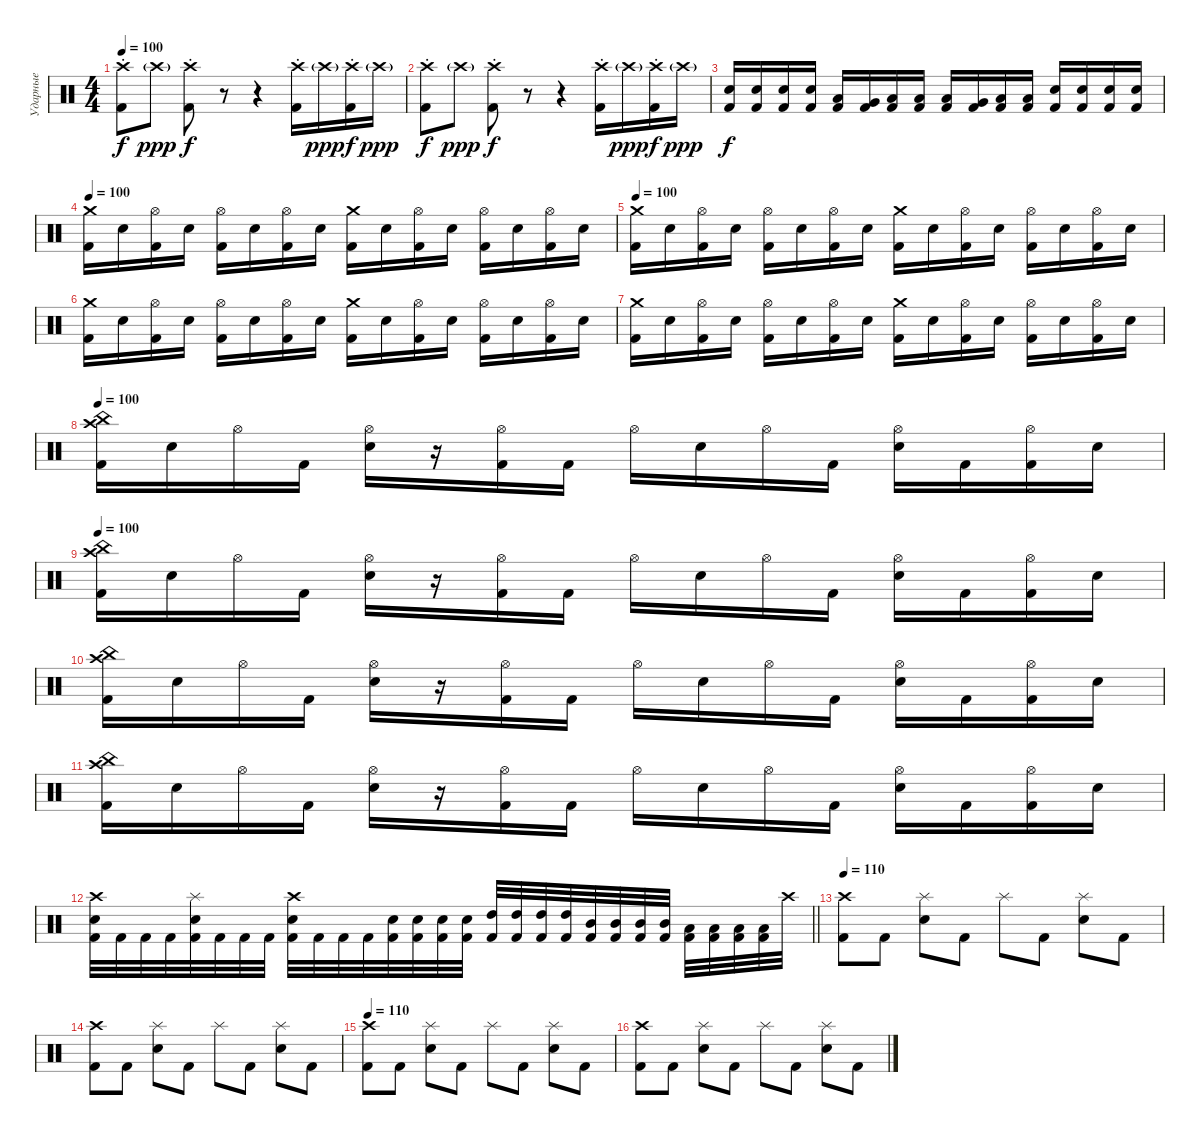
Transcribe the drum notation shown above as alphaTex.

\track ("Ударные" "Ударные") {instrument percussion}
\staff {score}
\articulation defaults
\ts (4 4)
\tempo 100
\clef neutral
\ks c
("Crash high (hit)"{st} "Kick (hit) 2").8{dy f} "Crash high (hit)"{g}.8{dy ppp} ("Crash high (hit)"{st} "Kick (hit) 2").8{dy f} r.8 r.4 ("Crash high (hit)"{st} "Kick (hit) 2").16 "Crash high (hit)"{g}.16{dy ppp} ("Crash high (hit)"{st} "Kick (hit) 2").16{dy f} "Crash high (hit)"{g}.16{dy ppp} |
("Crash high (hit)"{st} "Kick (hit) 2").8{dy f} "Crash high (hit)"{g}.8{dy ppp} ("Crash high (hit)"{st} "Kick (hit) 2").8{dy f} r.8 r.4 ("Crash high (hit)"{st} "Kick (hit) 2").16 "Crash high (hit)"{g}.16{dy ppp} ("Crash high (hit)"{st} "Kick (hit) 2").16{dy f} "Crash high (hit)"{g}.16{dy ppp} |
("Electric Snare (hit)" "Kick (hit) 2").16{dy f} ("Electric Snare (hit)" "Kick (hit) 2").16 ("Electric Snare (hit)" "Kick (hit) 2").16 ("Electric Snare (hit)" "Kick (hit) 2").16 ("Low Tom (hit)" "Kick (hit) 2").16 ("Very Low Tom (hit)" "Kick (hit) 2").16 ("Low Floor Tom (hit)" "Kick (hit) 2").16 ("Low Floor Tom (hit)" "Kick (hit) 2").16 ("Low Tom (hit)" "Kick (hit) 2").16 ("Very Low Tom (hit)" "Kick (hit) 2").16 ("Low Floor Tom (hit)" "Kick (hit) 2").16 ("Low Floor Tom (hit)" "Kick (hit) 2").16 ("Electric Snare (hit)" "Kick (hit) 2").16 ("Electric Snare (hit)" "Kick (hit) 2").16 ("Electric Snare (hit)" "Kick (hit) 2").16 ("Electric Snare (hit)" "Kick (hit) 2").16 |
\tempo 100
("Crash medium (hit)" "Kick (hit) 2").16 "Electric Snare (hit)".16 ("Hi-Hat (open)" "Kick (hit) 2").16 "Electric Snare (hit)".16 ("Hi-Hat (open)" "Kick (hit) 2").16 "Electric Snare (hit)".16 ("Hi-Hat (open)" "Kick (hit) 2").16 "Electric Snare (hit)".16 ("Crash medium (hit)" "Kick (hit) 2").16 "Electric Snare (hit)".16 ("Hi-Hat (open)" "Kick (hit) 2").16 "Electric Snare (hit)".16 ("Hi-Hat (open)" "Kick (hit) 2").16 "Electric Snare (hit)".16 ("Hi-Hat (open)" "Kick (hit) 2").16 "Electric Snare (hit)".16 |
\tempo 100
("Crash medium (hit)" "Kick (hit) 2").16 "Electric Snare (hit)".16 ("Hi-Hat (open)" "Kick (hit) 2").16 "Electric Snare (hit)".16 ("Hi-Hat (open)" "Kick (hit) 2").16 "Electric Snare (hit)".16 ("Hi-Hat (open)" "Kick (hit) 2").16 "Electric Snare (hit)".16 ("Crash medium (hit)" "Kick (hit) 2").16 "Electric Snare (hit)".16 ("Hi-Hat (open)" "Kick (hit) 2").16 "Electric Snare (hit)".16 ("Hi-Hat (open)" "Kick (hit) 2").16 "Electric Snare (hit)".16 ("Hi-Hat (open)" "Kick (hit) 2").16 "Electric Snare (hit)".16 |
("Crash medium (hit)" "Kick (hit) 2").16 "Electric Snare (hit)".16 ("Hi-Hat (open)" "Kick (hit) 2").16 "Electric Snare (hit)".16 ("Hi-Hat (open)" "Kick (hit) 2").16 "Electric Snare (hit)".16 ("Hi-Hat (open)" "Kick (hit) 2").16 "Electric Snare (hit)".16 ("Crash medium (hit)" "Kick (hit) 2").16 "Electric Snare (hit)".16 ("Hi-Hat (open)" "Kick (hit) 2").16 "Electric Snare (hit)".16 ("Hi-Hat (open)" "Kick (hit) 2").16 "Electric Snare (hit)".16 ("Hi-Hat (open)" "Kick (hit) 2").16 "Electric Snare (hit)".16 |
("Crash medium (hit)" "Kick (hit) 2").16 "Electric Snare (hit)".16 ("Hi-Hat (open)" "Kick (hit) 2").16 "Electric Snare (hit)".16 ("Hi-Hat (open)" "Kick (hit) 2").16 "Electric Snare (hit)".16 ("Hi-Hat (open)" "Kick (hit) 2").16 "Electric Snare (hit)".16 ("Crash medium (hit)" "Kick (hit) 2").16 "Electric Snare (hit)".16 ("Hi-Hat (open)" "Kick (hit) 2").16 "Electric Snare (hit)".16 ("Hi-Hat (open)" "Kick (hit) 2").16 "Electric Snare (hit)".16 ("Hi-Hat (open)" "Kick (hit) 2").16 "Electric Snare (hit)".16 |
\tempo 100
("Crash high (hit)" "China (hit)" "Kick (hit) 2").16 "Electric Snare (hit)".16 "Hi-Hat (open)".16 "Kick (hit) 2".16 ("Hi-Hat (open)" "Electric Snare (hit)").16 r.16 ("Hi-Hat (open)" "Kick (hit) 2").16 "Kick (hit) 2".16 "Hi-Hat (open)".16 "Electric Snare (hit)".16 "Hi-Hat (open)".16 "Kick (hit) 2".16 ("Hi-Hat (open)" "Electric Snare (hit)").16 "Kick (hit) 2".16 ("Hi-Hat (open)" "Kick (hit) 2").16 "Electric Snare (hit)".16 |
\tempo 100
("Crash high (hit)" "China (hit)" "Kick (hit) 2").16 "Electric Snare (hit)".16 "Hi-Hat (open)".16 "Kick (hit) 2".16 ("Hi-Hat (open)" "Electric Snare (hit)").16 r.16 ("Hi-Hat (open)" "Kick (hit) 2").16 "Kick (hit) 2".16 "Hi-Hat (open)".16 "Electric Snare (hit)".16 "Hi-Hat (open)".16 "Kick (hit) 2".16 ("Hi-Hat (open)" "Electric Snare (hit)").16 "Kick (hit) 2".16 ("Hi-Hat (open)" "Kick (hit) 2").16 "Electric Snare (hit)".16 |
("Crash high (hit)" "China (hit)" "Kick (hit) 2").16 "Electric Snare (hit)".16 "Hi-Hat (open)".16 "Kick (hit) 2".16 ("Hi-Hat (open)" "Electric Snare (hit)").16 r.16 ("Hi-Hat (open)" "Kick (hit) 2").16 "Kick (hit) 2".16 "Hi-Hat (open)".16 "Electric Snare (hit)".16 "Hi-Hat (open)".16 "Kick (hit) 2".16 ("Hi-Hat (open)" "Electric Snare (hit)").16 "Kick (hit) 2".16 ("Hi-Hat (open)" "Kick (hit) 2").16 "Electric Snare (hit)".16 |
("Crash high (hit)" "China (hit)" "Kick (hit) 2").16 "Electric Snare (hit)".16 "Hi-Hat (open)".16 "Kick (hit) 2".16 ("Hi-Hat (open)" "Electric Snare (hit)").16 r.16 ("Hi-Hat (open)" "Kick (hit) 2").16 "Kick (hit) 2".16 "Hi-Hat (open)".16 "Electric Snare (hit)".16 "Hi-Hat (open)".16 "Kick (hit) 2".16 ("Hi-Hat (open)" "Electric Snare (hit)").16 "Kick (hit) 2".16 ("Hi-Hat (open)" "Kick (hit) 2").16 "Electric Snare (hit)".16 |
\barLineRight lightlight
("Crash high (hit)" "Electric Snare (hit)" "Kick (hit) 2").32 "Kick (hit) 2".32 "Kick (hit) 2".32 "Kick (hit) 2".32 ("Splash (hit)" "Electric Snare (hit)" "Kick (hit) 2").32 "Kick (hit) 2".32 "Kick (hit) 2".32 "Kick (hit) 2".32 ("Crash high (hit)" "Electric Snare (hit)" "Kick (hit) 2").32 "Kick (hit) 2".32 "Kick (hit) 2".32 "Kick (hit) 2".32 ("Electric Snare (hit)" "Kick (hit) 2").32 ("Electric Snare (hit)" "Kick (hit) 2").32 ("Electric Snare (hit)" "Kick (hit) 2").32 ("Electric Snare (hit)" "Kick (hit) 2").32 ("High Tom (hit)" "Kick (hit) 2").32 ("High Tom (hit)" "Kick (hit) 2").32 ("High Tom (hit)" "Kick (hit) 2").32 ("High Tom (hit)" "Kick (hit) 2").32 ("Mid Tom (hit)" "Kick (hit) 2").32 ("Mid Tom (hit)" "Kick (hit) 2").32 ("Mid Tom (hit)" "Kick (hit) 2").32 ("Mid Tom (hit)" "Kick (hit) 2").32 ("Low Tom (hit)" "Kick (hit) 2").32 ("Low Tom (hit)" "Kick (hit) 2").32 ("Low Tom (hit)" "Kick (hit) 2").32 ("Low Tom (hit)" "Kick (hit) 2").32 "Crash high (hit)".32 |
\tempo 110
("Crash high (hit)" "Kick (hit) 2").8 "Kick (hit) 2".8 ("Splash (hit)" "Electric Snare (hit)").8 "Kick (hit) 2".8 "Splash (hit)".8 "Kick (hit) 2".8 ("Splash (hit)" "Electric Snare (hit)").8 "Kick (hit) 2".8 |
("Crash high (hit)" "Kick (hit) 2").8 "Kick (hit) 2".8 ("Splash (hit)" "Electric Snare (hit)").8 "Kick (hit) 2".8 "Splash (hit)".8 "Kick (hit) 2".8 ("Splash (hit)" "Electric Snare (hit)").8 "Kick (hit) 2".8 |
\tempo 110
("Crash high (hit)" "Kick (hit) 2").8 "Kick (hit) 2".8 ("Splash (hit)" "Electric Snare (hit)").8 "Kick (hit) 2".8 "Splash (hit)".8 "Kick (hit) 2".8 ("Splash (hit)" "Electric Snare (hit)").8 "Kick (hit) 2".8 |
("Crash high (hit)" "Kick (hit) 2").8 "Kick (hit) 2".8 ("Splash (hit)" "Electric Snare (hit)").8 "Kick (hit) 2".8 "Splash (hit)".8 "Kick (hit) 2".8 ("Splash (hit)" "Electric Snare (hit)").8 "Kick (hit) 2".8
